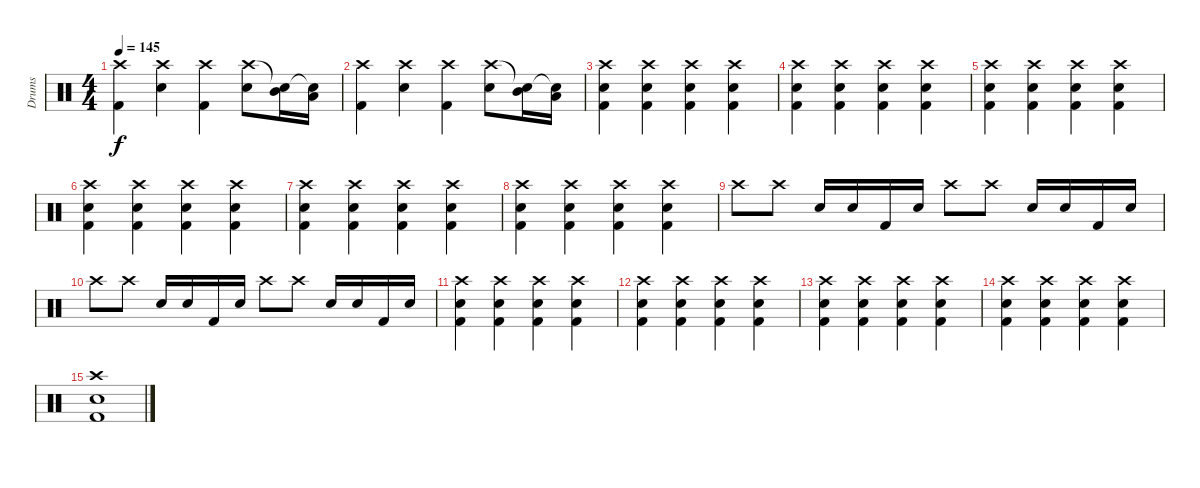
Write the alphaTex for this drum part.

\track ("Drums" "Drums") {instrument percussion}
\staff {score}
\articulation defaults
\ts (4 4)
\tempo 145
\clef neutral
\ks c
("Crash high (hit)" "Kick (hit) 2").4{dy f} ("Crash high (hit)" "Snare (hit) 2").4 ("Crash high (hit)" "Kick (hit) 2").4 ("Crash high (hit)" "Snare (hit) 2").8 ("Snare (hit)"{t} "Mid Tom (hit)").16 ("Snare (hit)"{t} "Low Tom (hit)").16 |
("Crash high (hit)" "Kick (hit) 2").4 ("Crash high (hit)" "Snare (hit) 2").4 ("Crash high (hit)" "Kick (hit) 2").4 ("Crash high (hit)" "Snare (hit) 2").8 ("Snare (hit)"{t} "Mid Tom (hit)").16 ("Snare (hit)"{t} "Low Tom (hit)").16 |
("Crash high (hit)" "Snare (hit) 2" "Kick (hit) 2").4 ("Crash high (hit)" "Snare (hit) 2" "Kick (hit) 2").4 ("Crash high (hit)" "Snare (hit) 2" "Kick (hit) 2").4 ("Crash high (hit)" "Snare (hit) 2" "Kick (hit) 2").4 |
("Crash high (hit)" "Snare (hit) 2" "Kick (hit) 2").4 ("Crash high (hit)" "Snare (hit) 2" "Kick (hit) 2").4 ("Crash high (hit)" "Snare (hit) 2" "Kick (hit) 2").4 ("Crash high (hit)" "Snare (hit) 2" "Kick (hit) 2").4 |
("Crash high (hit)" "Snare (hit) 2" "Kick (hit) 2").4 ("Crash high (hit)" "Snare (hit) 2" "Kick (hit) 2").4 ("Crash high (hit)" "Snare (hit) 2" "Kick (hit) 2").4 ("Crash high (hit)" "Snare (hit) 2" "Kick (hit) 2").4 |
("Crash high (hit)" "Snare (hit) 2" "Kick (hit) 2").4 ("Crash high (hit)" "Snare (hit) 2" "Kick (hit) 2").4 ("Crash high (hit)" "Snare (hit) 2" "Kick (hit) 2").4 ("Crash high (hit)" "Snare (hit) 2" "Kick (hit) 2").4 |
("Crash high (hit)" "Snare (hit) 2" "Kick (hit) 2").4 ("Crash high (hit)" "Snare (hit) 2" "Kick (hit) 2").4 ("Crash high (hit)" "Snare (hit) 2" "Kick (hit) 2").4 ("Crash high (hit)" "Snare (hit) 2" "Kick (hit) 2").4 |
("Crash high (hit)" "Snare (hit) 2" "Kick (hit) 2").4 ("Crash high (hit)" "Snare (hit) 2" "Kick (hit) 2").4 ("Crash high (hit)" "Snare (hit) 2" "Kick (hit) 2").4 ("Crash high (hit)" "Snare (hit) 2" "Kick (hit) 2").4 |
"Crash high (hit)".8 "Crash high (hit)".8 "Snare (hit) 2".16 "Snare (hit) 2".16 "Kick (hit) 2".16 "Snare (hit) 2".16 "Crash high (hit)".8 "Crash high (hit)".8 "Snare (hit) 2".16 "Snare (hit) 2".16 "Kick (hit) 2".16 "Snare (hit) 2".16 |
"Crash high (hit)".8 "Crash high (hit)".8 "Snare (hit) 2".16 "Snare (hit) 2".16 "Kick (hit) 2".16 "Snare (hit) 2".16 "Crash high (hit)".8 "Crash high (hit)".8 "Snare (hit) 2".16 "Snare (hit) 2".16 "Kick (hit) 2".16 "Snare (hit) 2".16 |
("Crash high (hit)" "Snare (hit) 2" "Kick (hit) 2").4 ("Crash high (hit)" "Snare (hit) 2" "Kick (hit) 2").4 ("Crash high (hit)" "Snare (hit) 2" "Kick (hit) 2").4 ("Crash high (hit)" "Snare (hit) 2" "Kick (hit) 2").4 |
("Crash high (hit)" "Snare (hit) 2" "Kick (hit) 2").4 ("Crash high (hit)" "Snare (hit) 2" "Kick (hit) 2").4 ("Crash high (hit)" "Snare (hit) 2" "Kick (hit) 2").4 ("Crash high (hit)" "Snare (hit) 2" "Kick (hit) 2").4 |
("Crash high (hit)" "Snare (hit) 2" "Kick (hit) 2").4 ("Crash high (hit)" "Snare (hit) 2" "Kick (hit) 2").4 ("Crash high (hit)" "Snare (hit) 2" "Kick (hit) 2").4 ("Crash high (hit)" "Snare (hit) 2" "Kick (hit) 2").4 |
("Crash high (hit)" "Snare (hit) 2" "Kick (hit) 2").4 ("Crash high (hit)" "Snare (hit) 2" "Kick (hit) 2").4 ("Crash high (hit)" "Snare (hit) 2" "Kick (hit) 2").4 ("Crash high (hit)" "Snare (hit) 2" "Kick (hit) 2").4 |
("Crash high (hit)" "Snare (hit) 2" "Kick (hit) 2").1
